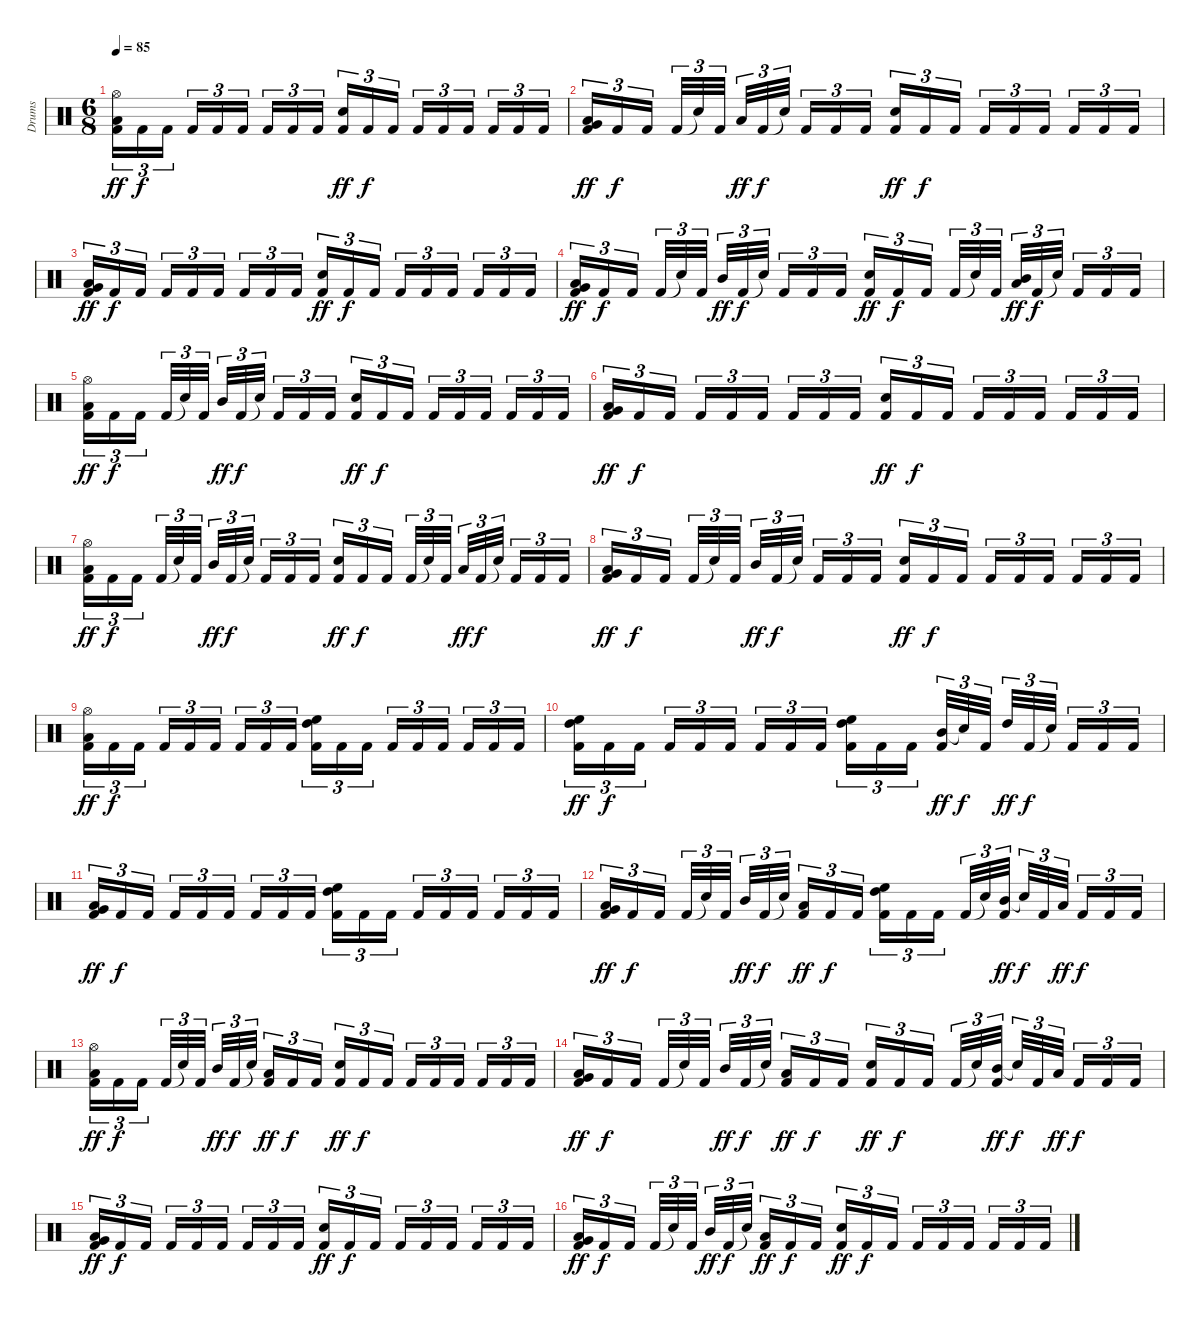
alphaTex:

\track ("Drums" "Drums") {instrument percussion}
\staff {score}
\articulation defaults
\ts (6 8)
\tempo 85
\clef neutral
\ks c
("Hi-Hat (open)" "Low Tom (hit)" "Kick (hit) 2").16{tu (3 2) dy ff} "Kick (hit) 2".16{tu (3 2) dy f} "Kick (hit) 2".16{tu (3 2) beam splitsecondary} "Kick (hit) 2".16{tu (3 2)} "Kick (hit) 2".16{tu (3 2)} "Kick (hit) 2".16{tu (3 2) beam splitsecondary} "Kick (hit) 2".16{tu (3 2)} "Kick (hit) 2".16{tu (3 2)} "Kick (hit) 2".16{tu (3 2)} ("Snare (hit) 2" "Kick (hit) 2").16{tu (3 2) dy ff} "Kick (hit) 2".16{tu (3 2) dy f} "Kick (hit) 2".16{tu (3 2) beam splitsecondary} "Kick (hit) 2".16{tu (3 2)} "Kick (hit) 2".16{tu (3 2)} "Kick (hit) 2".16{tu (3 2) beam splitsecondary} "Kick (hit) 2".16{tu (3 2)} "Kick (hit) 2".16{tu (3 2)} "Kick (hit) 2".16{tu (3 2)} |
("Very Low Tom (hit)" "Low Tom (hit)" "Kick (hit) 2").16{tu (3 2) dy ff} "Kick (hit) 2".16{tu (3 2) dy f} "Kick (hit) 2".16{tu (3 2) beam splitsecondary} "Kick (hit) 2".32{tu (3 2)} "Snare (hit)"{t}.32{tu (3 2)} "Kick (hit) 2".32{tu (3 2) beam splitsecondary} "Low Tom (hit)".32{tu (3 2) dy ff} "Kick (hit) 2".32{tu (3 2) dy f} "Snare (hit)"{t}.32{tu (3 2) beam splitsecondary} "Kick (hit) 2".16{tu (3 2)} "Kick (hit) 2".16{tu (3 2)} "Kick (hit) 2".16{tu (3 2)} ("Snare (hit) 2" "Kick (hit) 2").16{tu (3 2) dy ff} "Kick (hit) 2".16{tu (3 2) dy f} "Kick (hit) 2".16{tu (3 2) beam splitsecondary} "Kick (hit) 2".16{tu (3 2)} "Kick (hit) 2".16{tu (3 2)} "Kick (hit) 2".16{tu (3 2) beam splitsecondary} "Kick (hit) 2".16{tu (3 2)} "Kick (hit) 2".16{tu (3 2)} "Kick (hit) 2".16{tu (3 2)} |
("Very Low Tom (hit)" "Low Tom (hit)" "Kick (hit) 2").16{tu (3 2) dy ff} "Kick (hit) 2".16{tu (3 2) dy f} "Kick (hit) 2".16{tu (3 2) beam splitsecondary} "Kick (hit) 2".16{tu (3 2)} "Kick (hit) 2".16{tu (3 2)} "Kick (hit) 2".16{tu (3 2) beam splitsecondary} "Kick (hit) 2".16{tu (3 2)} "Kick (hit) 2".16{tu (3 2)} "Kick (hit) 2".16{tu (3 2)} ("Snare (hit) 2" "Kick (hit) 2").16{tu (3 2) dy ff} "Kick (hit) 2".16{tu (3 2) dy f} "Kick (hit) 2".16{tu (3 2) beam splitsecondary} "Kick (hit) 2".16{tu (3 2)} "Kick (hit) 2".16{tu (3 2)} "Kick (hit) 2".16{tu (3 2) beam splitsecondary} "Kick (hit) 2".16{tu (3 2)} "Kick (hit) 2".16{tu (3 2)} "Kick (hit) 2".16{tu (3 2)} |
("Very Low Tom (hit)" "Low Tom (hit)" "Kick (hit) 2").16{tu (3 2) dy ff} "Kick (hit) 2".16{tu (3 2) dy f} "Kick (hit) 2".16{tu (3 2) beam splitsecondary} "Kick (hit) 2".32{tu (3 2)} "Snare (hit)"{t}.32{tu (3 2)} "Kick (hit) 2".32{tu (3 2) beam splitsecondary} "Mid Tom (hit)".32{tu (3 2) dy ff} "Kick (hit) 2".32{tu (3 2) dy f} "Snare (hit)"{t}.32{tu (3 2) beam splitsecondary} "Kick (hit) 2".16{tu (3 2)} "Kick (hit) 2".16{tu (3 2)} "Kick (hit) 2".16{tu (3 2)} ("Snare (hit) 2" "Kick (hit) 2").16{tu (3 2) dy ff} "Kick (hit) 2".16{tu (3 2) dy f} "Kick (hit) 2".16{tu (3 2) beam splitsecondary} "Kick (hit) 2".32{tu (3 2)} "Snare (hit)"{t}.32{tu (3 2)} "Kick (hit) 2".32{tu (3 2) beam splitsecondary} ("Low Tom (hit)" "Mid Tom (hit)").32{tu (3 2) dy ff} "Kick (hit) 2".32{tu (3 2) dy f} "Snare (hit)"{t}.32{tu (3 2) beam splitsecondary} "Kick (hit) 2".16{tu (3 2)} "Kick (hit) 2".16{tu (3 2)} "Kick (hit) 2".16{tu (3 2)} |
("Hi-Hat (open)" "Low Tom (hit)" "Kick (hit) 2").16{tu (3 2) dy ff} "Kick (hit) 2".16{tu (3 2) dy f} "Kick (hit) 2".16{tu (3 2) beam splitsecondary} "Kick (hit) 2".32{tu (3 2)} "Snare (hit)"{t}.32{tu (3 2)} "Kick (hit) 2".32{tu (3 2) beam splitsecondary} "Mid Tom (hit)".32{tu (3 2) dy ff} "Kick (hit) 2".32{tu (3 2) dy f} "Snare (hit)"{t}.32{tu (3 2) beam splitsecondary} "Kick (hit) 2".16{tu (3 2)} "Kick (hit) 2".16{tu (3 2)} "Kick (hit) 2".16{tu (3 2)} ("Snare (hit) 2" "Kick (hit) 2").16{tu (3 2) dy ff} "Kick (hit) 2".16{tu (3 2) dy f} "Kick (hit) 2".16{tu (3 2) beam splitsecondary} "Kick (hit) 2".16{tu (3 2)} "Kick (hit) 2".16{tu (3 2)} "Kick (hit) 2".16{tu (3 2) beam splitsecondary} "Kick (hit) 2".16{tu (3 2)} "Kick (hit) 2".16{tu (3 2)} "Kick (hit) 2".16{tu (3 2)} |
("Very Low Tom (hit)" "Low Tom (hit)" "Kick (hit) 2").16{tu (3 2) dy ff} "Kick (hit) 2".16{tu (3 2) dy f} "Kick (hit) 2".16{tu (3 2) beam splitsecondary} "Kick (hit) 2".16{tu (3 2)} "Kick (hit) 2".16{tu (3 2)} "Kick (hit) 2".16{tu (3 2) beam splitsecondary} "Kick (hit) 2".16{tu (3 2)} "Kick (hit) 2".16{tu (3 2)} "Kick (hit) 2".16{tu (3 2)} ("Snare (hit) 2" "Kick (hit) 2").16{tu (3 2) dy ff} "Kick (hit) 2".16{tu (3 2) dy f} "Kick (hit) 2".16{tu (3 2) beam splitsecondary} "Kick (hit) 2".16{tu (3 2)} "Kick (hit) 2".16{tu (3 2)} "Kick (hit) 2".16{tu (3 2) beam splitsecondary} "Kick (hit) 2".16{tu (3 2)} "Kick (hit) 2".16{tu (3 2)} "Kick (hit) 2".16{tu (3 2)} |
("Hi-Hat (open)" "Low Tom (hit)" "Kick (hit) 2").16{tu (3 2) dy ff} "Kick (hit) 2".16{tu (3 2) dy f} "Kick (hit) 2".16{tu (3 2) beam splitsecondary} "Kick (hit) 2".32{tu (3 2)} "Snare (hit)"{t}.32{tu (3 2)} "Kick (hit) 2".32{tu (3 2) beam splitsecondary} "Mid Tom (hit)".32{tu (3 2) dy ff} "Kick (hit) 2".32{tu (3 2) dy f} "Snare (hit)"{t}.32{tu (3 2) beam splitsecondary} "Kick (hit) 2".16{tu (3 2)} "Kick (hit) 2".16{tu (3 2)} "Kick (hit) 2".16{tu (3 2)} ("Snare (hit) 2" "Kick (hit) 2").16{tu (3 2) dy ff} "Kick (hit) 2".16{tu (3 2) dy f} "Kick (hit) 2".16{tu (3 2) beam splitsecondary} "Kick (hit) 2".32{tu (3 2)} "Snare (hit)"{t}.32{tu (3 2)} "Kick (hit) 2".32{tu (3 2) beam splitsecondary} "Low Tom (hit)".32{tu (3 2) dy ff} "Kick (hit) 2".32{tu (3 2) dy f} "Snare (hit)"{t}.32{tu (3 2) beam splitsecondary} "Kick (hit) 2".16{tu (3 2)} "Kick (hit) 2".16{tu (3 2)} "Kick (hit) 2".16{tu (3 2)} |
("Very Low Tom (hit)" "Low Tom (hit)" "Kick (hit) 2").16{tu (3 2) dy ff} "Kick (hit) 2".16{tu (3 2) dy f} "Kick (hit) 2".16{tu (3 2) beam splitsecondary} "Kick (hit) 2".32{tu (3 2)} "Snare (hit)"{t}.32{tu (3 2)} "Kick (hit) 2".32{tu (3 2) beam splitsecondary} "Mid Tom (hit)".32{tu (3 2) dy ff} "Kick (hit) 2".32{tu (3 2) dy f} "Snare (hit)"{t}.32{tu (3 2) beam splitsecondary} "Kick (hit) 2".16{tu (3 2)} "Kick (hit) 2".16{tu (3 2)} "Kick (hit) 2".16{tu (3 2)} ("Snare (hit) 2" "Kick (hit) 2").16{tu (3 2) dy ff} "Kick (hit) 2".16{tu (3 2) dy f} "Kick (hit) 2".16{tu (3 2) beam splitsecondary} "Kick (hit) 2".16{tu (3 2)} "Kick (hit) 2".16{tu (3 2)} "Kick (hit) 2".16{tu (3 2) beam splitsecondary} "Kick (hit) 2".16{tu (3 2)} "Kick (hit) 2".16{tu (3 2)} "Kick (hit) 2".16{tu (3 2)} |
("Hi-Hat (open)" "Low Tom (hit)" "Kick (hit) 2").16{tu (3 2) dy ff} "Kick (hit) 2".16{tu (3 2) dy f} "Kick (hit) 2".16{tu (3 2) beam splitsecondary} "Kick (hit) 2".16{tu (3 2)} "Kick (hit) 2".16{tu (3 2)} "Kick (hit) 2".16{tu (3 2) beam splitsecondary} "Kick (hit) 2".16{tu (3 2)} "Kick (hit) 2".16{tu (3 2)} "Kick (hit) 2".16{tu (3 2)} ("High Tom (hit)" "High Floor Tom (hit)" "Kick (hit) 2").16{tu (3 2)} "Kick (hit) 2".16{tu (3 2)} "Kick (hit) 2".16{tu (3 2) beam splitsecondary} "Kick (hit) 2".16{tu (3 2)} "Kick (hit) 2".16{tu (3 2)} "Kick (hit) 2".16{tu (3 2) beam splitsecondary} "Kick (hit) 2".16{tu (3 2)} "Kick (hit) 2".16{tu (3 2)} "Kick (hit) 2".16{tu (3 2)} |
("High Tom (hit)" "High Floor Tom (hit)" "Kick (hit) 2").16{tu (3 2) dy ff} "Kick (hit) 2".16{tu (3 2) dy f} "Kick (hit) 2".16{tu (3 2) beam splitsecondary} "Kick (hit) 2".16{tu (3 2)} "Kick (hit) 2".16{tu (3 2)} "Kick (hit) 2".16{tu (3 2) beam splitsecondary} "Kick (hit) 2".16{tu (3 2)} "Kick (hit) 2".16{tu (3 2)} "Kick (hit) 2".16{tu (3 2)} ("High Tom (hit)" "High Floor Tom (hit)" "Kick (hit) 2").16{tu (3 2)} "Kick (hit) 2".16{tu (3 2)} "Kick (hit) 2".16{tu (3 2) beam splitsecondary} ("Mid Tom (hit)" "Kick (hit) 2").32{tu (3 2) dy ff} "Snare (hit)"{t}.32{tu (3 2) dy f} "Kick (hit) 2".32{tu (3 2) beam splitsecondary} "High Tom (hit)".32{tu (3 2) dy ff} "Kick (hit) 2".32{tu (3 2) dy f} "Snare (hit)"{t}.32{tu (3 2) beam splitsecondary} "Kick (hit) 2".16{tu (3 2)} "Kick (hit) 2".16{tu (3 2)} "Kick (hit) 2".16{tu (3 2)} |
("Very Low Tom (hit)" "Low Tom (hit)" "Kick (hit) 2").16{tu (3 2) dy ff} "Kick (hit) 2".16{tu (3 2) dy f} "Kick (hit) 2".16{tu (3 2) beam splitsecondary} "Kick (hit) 2".16{tu (3 2)} "Kick (hit) 2".16{tu (3 2)} "Kick (hit) 2".16{tu (3 2) beam splitsecondary} "Kick (hit) 2".16{tu (3 2)} "Kick (hit) 2".16{tu (3 2)} "Kick (hit) 2".16{tu (3 2)} ("High Tom (hit)" "High Floor Tom (hit)" "Kick (hit) 2").16{tu (3 2)} "Kick (hit) 2".16{tu (3 2)} "Kick (hit) 2".16{tu (3 2) beam splitsecondary} "Kick (hit) 2".16{tu (3 2)} "Kick (hit) 2".16{tu (3 2)} "Kick (hit) 2".16{tu (3 2) beam splitsecondary} "Kick (hit) 2".16{tu (3 2)} "Kick (hit) 2".16{tu (3 2)} "Kick (hit) 2".16{tu (3 2)} |
("Very Low Tom (hit)" "Low Tom (hit)" "Kick (hit) 2").16{tu (3 2) dy ff} "Kick (hit) 2".16{tu (3 2) dy f} "Kick (hit) 2".16{tu (3 2) beam splitsecondary} "Kick (hit) 2".32{tu (3 2)} "Snare (hit)"{t}.32{tu (3 2)} "Kick (hit) 2".32{tu (3 2) beam splitsecondary} "Mid Tom (hit)".32{tu (3 2) dy ff} "Kick (hit) 2".32{tu (3 2) dy f} "Snare (hit)"{t}.32{tu (3 2) beam splitsecondary} ("Low Tom (hit)" "Kick (hit) 2").16{tu (3 2) dy ff} "Kick (hit) 2".16{tu (3 2) dy f} "Kick (hit) 2".16{tu (3 2)} ("High Tom (hit)" "High Floor Tom (hit)" "Kick (hit) 2").16{tu (3 2)} "Kick (hit) 2".16{tu (3 2)} "Kick (hit) 2".16{tu (3 2) beam splitsecondary} "Kick (hit) 2".32{tu (3 2)} "Snare (hit)"{t}.32{tu (3 2)} ("Mid Tom (hit)" "Kick (hit) 2").32{tu (3 2) dy ff beam splitsecondary} "Snare (hit)"{t}.32{tu (3 2) dy f} "Kick (hit) 2".32{tu (3 2)} "Low Tom (hit)".32{tu (3 2) dy ff beam splitsecondary} "Kick (hit) 2".16{tu (3 2) dy f} "Kick (hit) 2".16{tu (3 2)} "Kick (hit) 2".16{tu (3 2)} |
("Hi-Hat (open)" "Low Tom (hit)" "Kick (hit) 2").16{tu (3 2) dy ff} "Kick (hit) 2".16{tu (3 2) dy f} "Kick (hit) 2".16{tu (3 2) beam splitsecondary} "Kick (hit) 2".32{tu (3 2)} "Snare (hit)"{t}.32{tu (3 2)} "Kick (hit) 2".32{tu (3 2) beam splitsecondary} "Mid Tom (hit)".32{tu (3 2) dy ff} "Kick (hit) 2".32{tu (3 2) dy f} "Snare (hit)"{t}.32{tu (3 2) beam splitsecondary} ("Low Tom (hit)" "Kick (hit) 2").16{tu (3 2) dy ff} "Kick (hit) 2".16{tu (3 2) dy f} "Kick (hit) 2".16{tu (3 2)} ("Snare (hit) 2" "Kick (hit) 2").16{tu (3 2) dy ff} "Kick (hit) 2".16{tu (3 2) dy f} "Kick (hit) 2".16{tu (3 2) beam splitsecondary} "Kick (hit) 2".16{tu (3 2)} "Kick (hit) 2".16{tu (3 2)} "Kick (hit) 2".16{tu (3 2) beam splitsecondary} "Kick (hit) 2".16{tu (3 2)} "Kick (hit) 2".16{tu (3 2)} "Kick (hit) 2".16{tu (3 2)} |
("Very Low Tom (hit)" "Low Tom (hit)" "Kick (hit) 2").16{tu (3 2) dy ff} "Kick (hit) 2".16{tu (3 2) dy f} "Kick (hit) 2".16{tu (3 2) beam splitsecondary} "Kick (hit) 2".32{tu (3 2)} "Snare (hit)"{t}.32{tu (3 2)} "Kick (hit) 2".32{tu (3 2) beam splitsecondary} "Mid Tom (hit)".32{tu (3 2) dy ff} "Kick (hit) 2".32{tu (3 2) dy f} "Snare (hit)"{t}.32{tu (3 2) beam splitsecondary} ("Low Tom (hit)" "Kick (hit) 2").16{tu (3 2) dy ff} "Kick (hit) 2".16{tu (3 2) dy f} "Kick (hit) 2".16{tu (3 2)} ("Snare (hit) 2" "Kick (hit) 2").16{tu (3 2) dy ff} "Kick (hit) 2".16{tu (3 2) dy f} "Kick (hit) 2".16{tu (3 2) beam splitsecondary} "Kick (hit) 2".32{tu (3 2)} "Snare (hit)"{t}.32{tu (3 2)} ("Mid Tom (hit)" "Kick (hit) 2").32{tu (3 2) dy ff beam splitsecondary} "Snare (hit)"{t}.32{tu (3 2) dy f} "Kick (hit) 2".32{tu (3 2)} "Low Tom (hit)".32{tu (3 2) dy ff beam splitsecondary} "Kick (hit) 2".16{tu (3 2) dy f} "Kick (hit) 2".16{tu (3 2)} "Kick (hit) 2".16{tu (3 2)} |
("Very Low Tom (hit)" "Low Tom (hit)" "Kick (hit) 2").16{tu (3 2) dy ff} "Kick (hit) 2".16{tu (3 2) dy f} "Kick (hit) 2".16{tu (3 2) beam splitsecondary} "Kick (hit) 2".16{tu (3 2)} "Kick (hit) 2".16{tu (3 2)} "Kick (hit) 2".16{tu (3 2) beam splitsecondary} "Kick (hit) 2".16{tu (3 2)} "Kick (hit) 2".16{tu (3 2)} "Kick (hit) 2".16{tu (3 2)} ("Snare (hit) 2" "Kick (hit) 2").16{tu (3 2) dy ff} "Kick (hit) 2".16{tu (3 2) dy f} "Kick (hit) 2".16{tu (3 2) beam splitsecondary} "Kick (hit) 2".16{tu (3 2)} "Kick (hit) 2".16{tu (3 2)} "Kick (hit) 2".16{tu (3 2) beam splitsecondary} "Kick (hit) 2".16{tu (3 2)} "Kick (hit) 2".16{tu (3 2)} "Kick (hit) 2".16{tu (3 2)} |
("Very Low Tom (hit)" "Low Tom (hit)" "Kick (hit) 2").16{tu (3 2) dy ff} "Kick (hit) 2".16{tu (3 2) dy f} "Kick (hit) 2".16{tu (3 2) beam splitsecondary} "Kick (hit) 2".32{tu (3 2)} "Snare (hit)"{t}.32{tu (3 2)} "Kick (hit) 2".32{tu (3 2) beam splitsecondary} "Mid Tom (hit)".32{tu (3 2) dy ff} "Kick (hit) 2".32{tu (3 2) dy f} "Snare (hit)"{t}.32{tu (3 2) beam splitsecondary} ("Low Tom (hit)" "Kick (hit) 2").16{tu (3 2) dy ff} "Kick (hit) 2".16{tu (3 2) dy f} "Kick (hit) 2".16{tu (3 2)} ("Snare (hit) 2" "Kick (hit) 2").16{tu (3 2) dy ff} "Kick (hit) 2".16{tu (3 2) dy f} "Kick (hit) 2".16{tu (3 2) beam splitsecondary} "Kick (hit) 2".16{tu (3 2)} "Kick (hit) 2".16{tu (3 2)} "Kick (hit) 2".16{tu (3 2) beam splitsecondary} "Kick (hit) 2".16{tu (3 2)} "Kick (hit) 2".16{tu (3 2)} "Kick (hit) 2".16{tu (3 2)}
